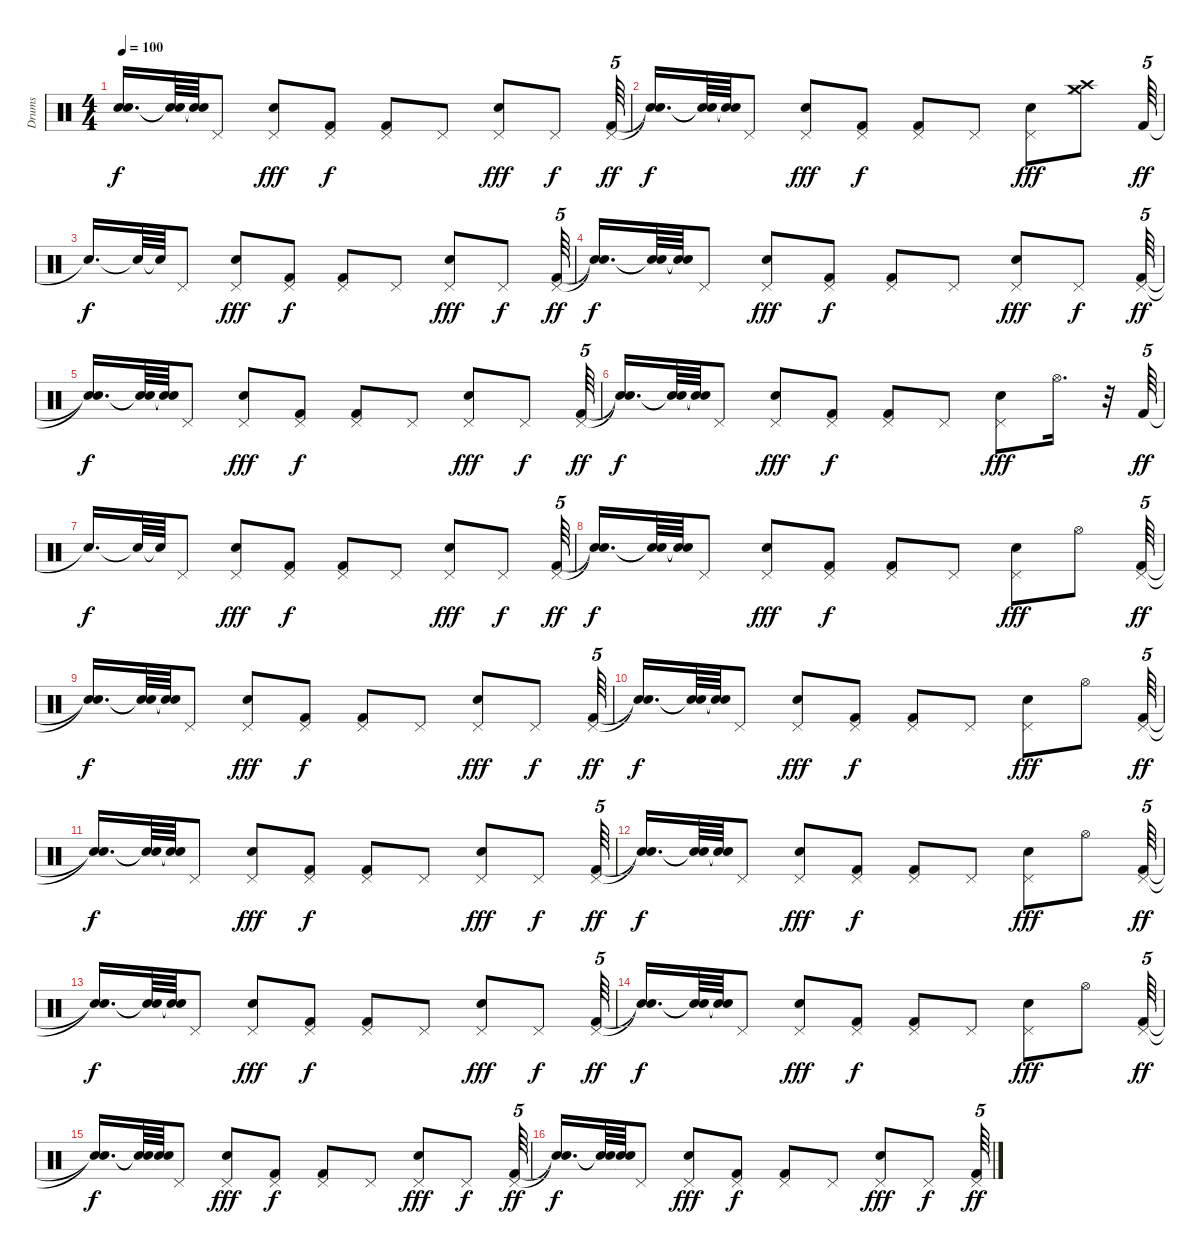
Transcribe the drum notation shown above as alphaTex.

\track ("Drums" "Drums") {instrument percussion}
\staff {score}
\articulation defaults
\ts (4 4)
\tempo 100
\clef neutral
\ks c
("Snare (hit)"{t} "Snare (hit)"{t}).16{d dy f} ("Snare (hit)"{t} "Snare (hit)"{t}).64 ("Snare (hit)"{t} "Snare (hit)"{t}).64 "Pedal Hi-Hat (hit)".8 ("Snare (hit) 2" "Pedal Hi-Hat (hit)").8{dy fff} ("Kick (hit) 2" "Pedal Hi-Hat (hit)").8{dy f} ("Kick (hit) 2" "Pedal Hi-Hat (hit)").8 "Pedal Hi-Hat (hit)".8 ("Snare (hit) 2" "Pedal Hi-Hat (hit)").8{dy fff} "Pedal Hi-Hat (hit)".8{dy f} ("Pedal Hi-Hat (hit)" "Kick (hit) 2").64{tu (5 4) dy ff} |
("Snare (hit)"{t} "Snare (hit)"{t}).16{d dy f} ("Snare (hit)"{t} "Snare (hit)"{t}).64 ("Snare (hit)"{t} "Snare (hit)"{t}).64 "Pedal Hi-Hat (hit)".8 ("Pedal Hi-Hat (hit)" "Snare (hit) 2").8{dy fff} ("Kick (hit) 2" "Pedal Hi-Hat (hit)").8{dy f} ("Pedal Hi-Hat (hit)" "Kick (hit) 2").8 "Pedal Hi-Hat (hit)".8 ("Pedal Hi-Hat (hit)" "Snare (hit) 2").8{dy fff} ("Crash high (hit)" "Hi-Hat (closed)" "Crash medium (hit)").8 "Kick (hit) 2".64{tu (5 4) dy ff} |
"Snare (hit)"{t}.16{d dy f} "Snare (hit)"{t}.64 "Snare (hit)"{t}.64 "Pedal Hi-Hat (hit)".8 ("Snare (hit) 2" "Pedal Hi-Hat (hit)").8{dy fff} ("Kick (hit) 2" "Pedal Hi-Hat (hit)").8{dy f} ("Kick (hit) 2" "Pedal Hi-Hat (hit)").8 "Pedal Hi-Hat (hit)".8 ("Snare (hit) 2" "Pedal Hi-Hat (hit)").8{dy fff} "Pedal Hi-Hat (hit)".8{dy f} ("Pedal Hi-Hat (hit)" "Kick (hit) 2").64{tu (5 4) dy ff} |
("Snare (hit)"{t} "Snare (hit)"{t}).16{d dy f} ("Snare (hit)"{t} "Snare (hit)"{t}).64 ("Snare (hit)"{t} "Snare (hit)"{t}).64 "Pedal Hi-Hat (hit)".8 ("Pedal Hi-Hat (hit)" "Snare (hit) 2").8{dy fff} ("Kick (hit) 2" "Pedal Hi-Hat (hit)").8{dy f} ("Pedal Hi-Hat (hit)" "Kick (hit) 2").8 "Pedal Hi-Hat (hit)".8 ("Pedal Hi-Hat (hit)" "Snare (hit) 2").8{dy fff} "Pedal Hi-Hat (hit)".8{dy f} ("Pedal Hi-Hat (hit)" "Kick (hit) 2").64{tu (5 4) dy ff} |
("Snare (hit)"{t} "Snare (hit)"{t}).16{d dy f} ("Snare (hit)"{t} "Snare (hit)"{t}).64 ("Snare (hit)"{t} "Snare (hit)"{t}).64 "Pedal Hi-Hat (hit)".8 ("Snare (hit) 2" "Pedal Hi-Hat (hit)").8{dy fff} ("Kick (hit) 2" "Pedal Hi-Hat (hit)").8{dy f} ("Kick (hit) 2" "Pedal Hi-Hat (hit)").8 "Pedal Hi-Hat (hit)".8 ("Snare (hit) 2" "Pedal Hi-Hat (hit)").8{dy fff} "Pedal Hi-Hat (hit)".8{dy f} ("Pedal Hi-Hat (hit)" "Kick (hit) 2").64{tu (5 4) dy ff} |
("Snare (hit)"{t} "Snare (hit)"{t}).16{d dy f} ("Snare (hit)"{t} "Snare (hit)"{t}).64 ("Snare (hit)"{t} "Snare (hit)"{t}).64 "Pedal Hi-Hat (hit)".8 ("Pedal Hi-Hat (hit)" "Snare (hit) 2").8{dy fff} ("Kick (hit) 2" "Pedal Hi-Hat (hit)").8{dy f} ("Pedal Hi-Hat (hit)" "Kick (hit) 2").8 "Pedal Hi-Hat (hit)".8 ("Pedal Hi-Hat (hit)" "Snare (hit) 2").8{dy fff} "Hi-Hat (open)".16{d} r.32 "Kick (hit) 2".64{tu (5 4) dy ff} |
"Snare (hit)"{t}.16{d dy f} "Snare (hit)"{t}.64 "Snare (hit)"{t}.64 "Pedal Hi-Hat (hit)".8 ("Snare (hit) 2" "Pedal Hi-Hat (hit)").8{dy fff} ("Kick (hit) 2" "Pedal Hi-Hat (hit)").8{dy f} ("Kick (hit) 2" "Pedal Hi-Hat (hit)").8 "Pedal Hi-Hat (hit)".8 ("Snare (hit) 2" "Pedal Hi-Hat (hit)").8{dy fff} "Pedal Hi-Hat (hit)".8{dy f} ("Pedal Hi-Hat (hit)" "Kick (hit) 2").64{tu (5 4) dy ff} |
("Snare (hit)"{t} "Snare (hit)"{t}).16{d dy f} ("Snare (hit)"{t} "Snare (hit)"{t}).64 ("Snare (hit)"{t} "Snare (hit)"{t}).64 "Pedal Hi-Hat (hit)".8 ("Pedal Hi-Hat (hit)" "Snare (hit) 2").8{dy fff} ("Kick (hit) 2" "Pedal Hi-Hat (hit)").8{dy f} ("Pedal Hi-Hat (hit)" "Kick (hit) 2").8 "Pedal Hi-Hat (hit)".8 ("Pedal Hi-Hat (hit)" "Snare (hit) 2").8{dy fff} "Hi-Hat (open)".8 ("Pedal Hi-Hat (hit)" "Kick (hit) 2").64{tu (5 4) dy ff} |
("Snare (hit)"{t} "Snare (hit)"{t}).16{d dy f} ("Snare (hit)"{t} "Snare (hit)"{t}).64 ("Snare (hit)"{t} "Snare (hit)"{t}).64 "Pedal Hi-Hat (hit)".8 ("Snare (hit) 2" "Pedal Hi-Hat (hit)").8{dy fff} ("Kick (hit) 2" "Pedal Hi-Hat (hit)").8{dy f} ("Kick (hit) 2" "Pedal Hi-Hat (hit)").8 "Pedal Hi-Hat (hit)".8 ("Snare (hit) 2" "Pedal Hi-Hat (hit)").8{dy fff} "Pedal Hi-Hat (hit)".8{dy f} ("Pedal Hi-Hat (hit)" "Kick (hit) 2").64{tu (5 4) dy ff} |
("Snare (hit)"{t} "Snare (hit)"{t}).16{d dy f} ("Snare (hit)"{t} "Snare (hit)"{t}).64 ("Snare (hit)"{t} "Snare (hit)"{t}).64 "Pedal Hi-Hat (hit)".8 ("Pedal Hi-Hat (hit)" "Snare (hit) 2").8{dy fff} ("Kick (hit) 2" "Pedal Hi-Hat (hit)").8{dy f} ("Pedal Hi-Hat (hit)" "Kick (hit) 2").8 "Pedal Hi-Hat (hit)".8 ("Pedal Hi-Hat (hit)" "Snare (hit) 2").8{dy fff} "Hi-Hat (open)".8 ("Pedal Hi-Hat (hit)" "Kick (hit) 2").64{tu (5 4) dy ff} |
("Snare (hit)"{t} "Snare (hit)"{t}).16{d dy f} ("Snare (hit)"{t} "Snare (hit)"{t}).64 ("Snare (hit)"{t} "Snare (hit)"{t}).64 "Pedal Hi-Hat (hit)".8 ("Snare (hit) 2" "Pedal Hi-Hat (hit)").8{dy fff} ("Kick (hit) 2" "Pedal Hi-Hat (hit)").8{dy f} ("Kick (hit) 2" "Pedal Hi-Hat (hit)").8 "Pedal Hi-Hat (hit)".8 ("Snare (hit) 2" "Pedal Hi-Hat (hit)").8{dy fff} "Pedal Hi-Hat (hit)".8{dy f} ("Pedal Hi-Hat (hit)" "Kick (hit) 2").64{tu (5 4) dy ff} |
("Snare (hit)"{t} "Snare (hit)"{t}).16{d dy f} ("Snare (hit)"{t} "Snare (hit)"{t}).64 ("Snare (hit)"{t} "Snare (hit)"{t}).64 "Pedal Hi-Hat (hit)".8 ("Pedal Hi-Hat (hit)" "Snare (hit) 2").8{dy fff} ("Kick (hit) 2" "Pedal Hi-Hat (hit)").8{dy f} ("Pedal Hi-Hat (hit)" "Kick (hit) 2").8 "Pedal Hi-Hat (hit)".8 ("Pedal Hi-Hat (hit)" "Snare (hit) 2").8{dy fff} "Hi-Hat (open)".8 ("Pedal Hi-Hat (hit)" "Kick (hit) 2").64{tu (5 4) dy ff} |
("Snare (hit)"{t} "Snare (hit)"{t}).16{d dy f} ("Snare (hit)"{t} "Snare (hit)"{t}).64 ("Snare (hit)"{t} "Snare (hit)"{t}).64 "Pedal Hi-Hat (hit)".8 ("Snare (hit) 2" "Pedal Hi-Hat (hit)").8{dy fff} ("Kick (hit) 2" "Pedal Hi-Hat (hit)").8{dy f} ("Kick (hit) 2" "Pedal Hi-Hat (hit)").8 "Pedal Hi-Hat (hit)".8 ("Snare (hit) 2" "Pedal Hi-Hat (hit)").8{dy fff} "Pedal Hi-Hat (hit)".8{dy f} ("Pedal Hi-Hat (hit)" "Kick (hit) 2").64{tu (5 4) dy ff} |
("Snare (hit)"{t} "Snare (hit)"{t}).16{d dy f} ("Snare (hit)"{t} "Snare (hit)"{t}).64 ("Snare (hit)"{t} "Snare (hit)"{t}).64 "Pedal Hi-Hat (hit)".8 ("Pedal Hi-Hat (hit)" "Snare (hit) 2").8{dy fff} ("Kick (hit) 2" "Pedal Hi-Hat (hit)").8{dy f} ("Pedal Hi-Hat (hit)" "Kick (hit) 2").8 "Pedal Hi-Hat (hit)".8 ("Pedal Hi-Hat (hit)" "Snare (hit) 2").8{dy fff} "Hi-Hat (open)".8 ("Pedal Hi-Hat (hit)" "Kick (hit) 2").64{tu (5 4) dy ff} |
("Snare (hit)"{t} "Snare (hit)"{t}).16{d dy f} ("Snare (hit)"{t} "Snare (hit)"{t}).64 ("Snare (hit)"{t} "Snare (hit)"{t}).64 "Pedal Hi-Hat (hit)".8 ("Snare (hit) 2" "Pedal Hi-Hat (hit)").8{dy fff} ("Kick (hit) 2" "Pedal Hi-Hat (hit)").8{dy f} ("Kick (hit) 2" "Pedal Hi-Hat (hit)").8 "Pedal Hi-Hat (hit)".8 ("Snare (hit) 2" "Pedal Hi-Hat (hit)").8{dy fff} "Pedal Hi-Hat (hit)".8{dy f} ("Pedal Hi-Hat (hit)" "Kick (hit) 2").64{tu (5 4) dy ff} |
("Snare (hit)"{t} "Snare (hit)"{t}).16{d dy f} ("Snare (hit)"{t} "Snare (hit)"{t}).64 ("Snare (hit)"{t} "Snare (hit)"{t}).64 "Pedal Hi-Hat (hit)".8 ("Snare (hit) 2" "Pedal Hi-Hat (hit)").8{dy fff} ("Kick (hit) 2" "Pedal Hi-Hat (hit)").8{dy f} ("Kick (hit) 2" "Pedal Hi-Hat (hit)").8 "Pedal Hi-Hat (hit)".8 ("Snare (hit) 2" "Pedal Hi-Hat (hit)").8{dy fff} "Pedal Hi-Hat (hit)".8{dy f} ("Pedal Hi-Hat (hit)" "Kick (hit) 2").64{tu (5 4) dy ff}
